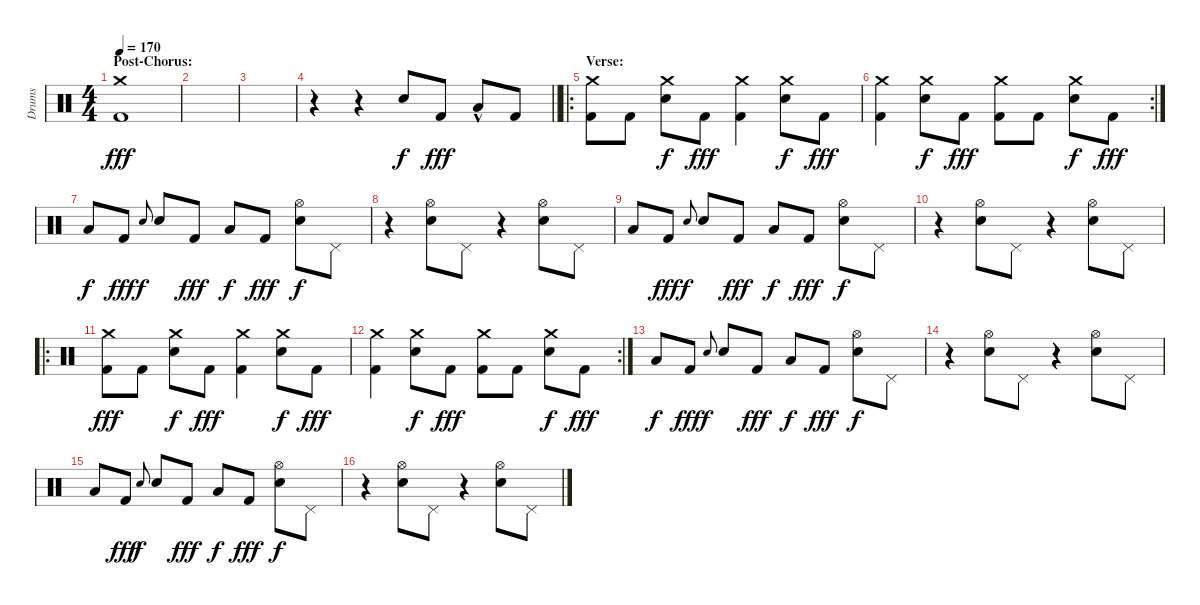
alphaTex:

\track ("Drums" "Drums") {instrument percussion}
\staff {score}
\articulation defaults
\ts (4 4)
\section ("" "Post-Chorus:")
\tempo 170
\clef neutral
\ks c
("Crash medium (hit)" "Kick (hit) 2").1{dy fff} |
|
|
\barLineRight lightlight
r.4 r.4 "Electric Snare (hit)".8{dy f} "Kick (hit) 2".8{dy fff} "Low Tom (hit)"{hac}.8 "Kick (hit) 2".8 |
\ro
\section ("" "Verse:")
("Crash medium (hit)" "Kick (hit) 2").8 "Kick (hit) 2".8 ("Crash medium (hit)" "Electric Snare (hit)").8{dy f} "Kick (hit) 2".8{dy fff} ("Crash medium (hit)" "Kick (hit) 2").4 ("Crash medium (hit)" "Electric Snare (hit)").8{dy f} "Kick (hit) 2".8{dy fff} |
\rc 2
("Crash medium (hit)" "Kick (hit) 2").4 ("Crash medium (hit)" "Electric Snare (hit)").8{dy f} "Kick (hit) 2".8{dy fff} ("Crash medium (hit)" "Kick (hit) 2").8 "Kick (hit) 2".8 ("Crash medium (hit)" "Electric Snare (hit)").8{dy f} "Kick (hit) 2".8{dy fff} |
"Low Tom (hit)".8{dy f} "Kick (hit) 2".8{dy fff} "Electric Snare (hit)".8{gr onbeat dy f} "Electric Snare (hit)".8 "Kick (hit) 2".8{dy fff} "Low Tom (hit)".8{dy f} "Kick (hit) 2".8{dy fff} ("Hi-Hat (open)" "Electric Snare (hit)").8{dy f} "Pedal Hi-Hat (hit)".8 |
r.4 ("Hi-Hat (open)" "Electric Snare (hit)").8 "Pedal Hi-Hat (hit)".8 r.4 ("Hi-Hat (open)" "Electric Snare (hit)").8 "Pedal Hi-Hat (hit)".8 |
"Low Tom (hit)".8 "Kick (hit) 2".8{dy fff} "Electric Snare (hit)".8{gr onbeat dy f} "Electric Snare (hit)".8 "Kick (hit) 2".8{dy fff} "Low Tom (hit)".8{dy f} "Kick (hit) 2".8{dy fff} ("Hi-Hat (open)" "Electric Snare (hit)").8{dy f} "Pedal Hi-Hat (hit)".8 |
r.4 ("Hi-Hat (open)" "Electric Snare (hit)").8 "Pedal Hi-Hat (hit)".8 r.4 ("Hi-Hat (open)" "Electric Snare (hit)").8 "Pedal Hi-Hat (hit)".8 |
\ro
("Crash medium (hit)" "Kick (hit) 2").8{dy fff} "Kick (hit) 2".8 ("Crash medium (hit)" "Electric Snare (hit)").8{dy f} "Kick (hit) 2".8{dy fff} ("Crash medium (hit)" "Kick (hit) 2").4 ("Crash medium (hit)" "Electric Snare (hit)").8{dy f} "Kick (hit) 2".8{dy fff} |
\rc 2
("Crash medium (hit)" "Kick (hit) 2").4 ("Crash medium (hit)" "Electric Snare (hit)").8{dy f} "Kick (hit) 2".8{dy fff} ("Crash medium (hit)" "Kick (hit) 2").8 "Kick (hit) 2".8 ("Crash medium (hit)" "Electric Snare (hit)").8{dy f} "Kick (hit) 2".8{dy fff} |
"Low Tom (hit)".8{dy f} "Kick (hit) 2".8{dy fff} "Electric Snare (hit)".8{gr onbeat dy f} "Electric Snare (hit)".8 "Kick (hit) 2".8{dy fff} "Low Tom (hit)".8{dy f} "Kick (hit) 2".8{dy fff} ("Hi-Hat (open)" "Electric Snare (hit)").8{dy f} "Pedal Hi-Hat (hit)".8 |
r.4 ("Hi-Hat (open)" "Electric Snare (hit)").8 "Pedal Hi-Hat (hit)".8 r.4 ("Hi-Hat (open)" "Electric Snare (hit)").8 "Pedal Hi-Hat (hit)".8 |
"Low Tom (hit)".8 "Kick (hit) 2".8{dy fff} "Electric Snare (hit)".8{gr onbeat dy f} "Electric Snare (hit)".8 "Kick (hit) 2".8{dy fff} "Low Tom (hit)".8{dy f} "Kick (hit) 2".8{dy fff} ("Hi-Hat (open)" "Electric Snare (hit)").8{dy f} "Pedal Hi-Hat (hit)".8 |
r.4 ("Hi-Hat (open)" "Electric Snare (hit)").8 "Pedal Hi-Hat (hit)".8 r.4 ("Hi-Hat (open)" "Electric Snare (hit)").8 "Pedal Hi-Hat (hit)".8
